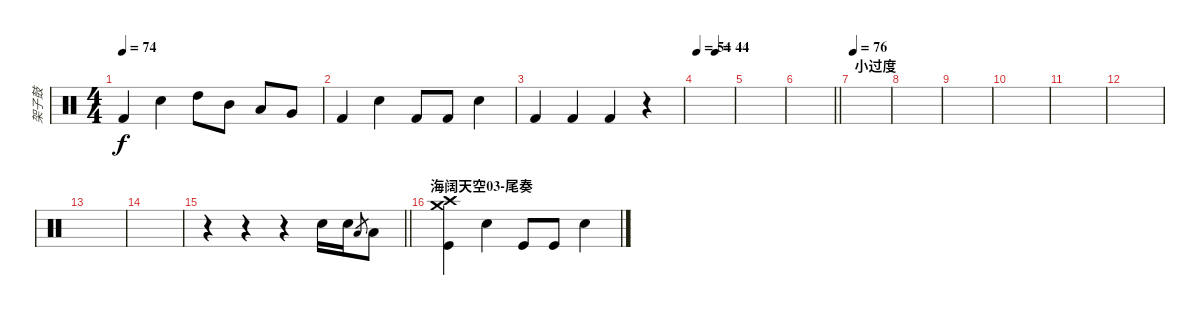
\track ("架子鼓" "架子鼓") {instrument percussion}
\staff {score}
\articulation defaults
\ts (4 4)
\tempo 74
\clef neutral
\ks c "Kick (hit) 2".4{dy f} "Electric Snare (hit)".4 "High Tom (hit)".8 "Mid Tom (hit)".8 "Low Tom (hit)".8 "Very Low Tom (hit)".8
|
"Kick (hit) 2".4 "Electric Snare (hit)".4 "Kick (hit) 2".8 "Kick (hit) 2".8 "Electric Snare (hit)".4 |
"Kick (hit) 2".4 "Kick (hit) 2".4 "Kick (hit) 2".4 r.4 |
\tempo 54
\tempo (44 0.5)
|
|
\barLineRight lightlight
|
\section ("" "小过度")
\tempo 76
|
|
|
|
|
|
|
|
\barLineRight lightlight
r.4 r.4 r.4 "Electric Snare (hit)".16 "Electric Snare (hit)".16 "Low Floor Tom (hit)".8{gr} "Low Floor Tom (hit)".8 |
\section ("" "海阔天空03-尾奏")
("Crash high (hit)" "Crash medium (hit)" "Kick (hit)").4 "Electric Snare (hit)".4 "Kick (hit)".8 "Kick (hit)".8 "Electric Snare (hit)".4
